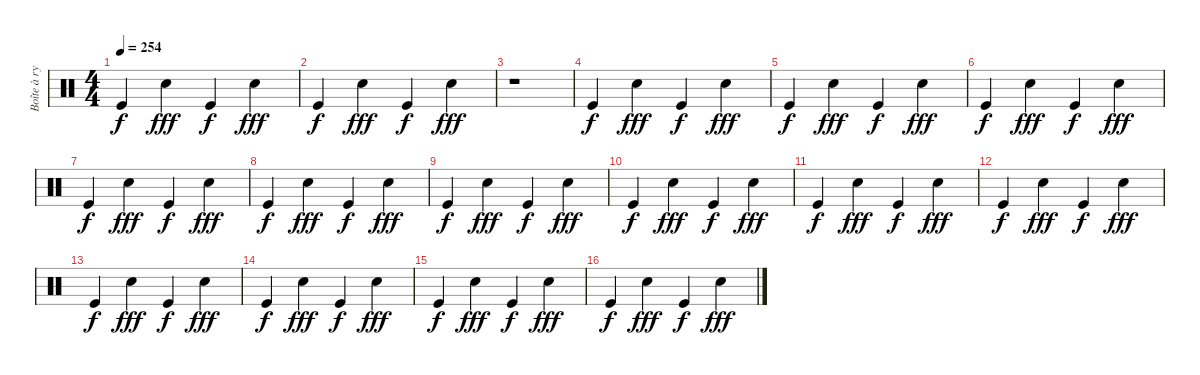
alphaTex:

\track ("Boîte à rytmes" "Boîte à ry") {instrument percussion}
\staff {score}
\articulation defaults
\ts (4 4)
\tempo 254
\clef neutral
\ks c "Kick (hit)".4{dy f} "Snare (hit) 2".4{dy fff} "Kick (hit)".4{dy f} "Snare (hit) 2".4{dy fff}
|
"Kick (hit)".4{dy f} "Snare (hit) 2".4{dy fff} "Kick (hit)".4{dy f} "Snare (hit) 2".4{dy fff} |
r.1 |
"Kick (hit)".4{dy f} "Snare (hit) 2".4{dy fff} "Kick (hit)".4{dy f} "Snare (hit) 2".4{dy fff} |
"Kick (hit)".4{dy f} "Snare (hit) 2".4{dy fff} "Kick (hit)".4{dy f} "Snare (hit) 2".4{dy fff} |
"Kick (hit)".4{dy f} "Snare (hit) 2".4{dy fff} "Kick (hit)".4{dy f} "Snare (hit) 2".4{dy fff} |
"Kick (hit)".4{dy f} "Snare (hit) 2".4{dy fff} "Kick (hit)".4{dy f} "Snare (hit) 2".4{dy fff} |
"Kick (hit)".4{dy f} "Snare (hit) 2".4{dy fff} "Kick (hit)".4{dy f} "Snare (hit) 2".4{dy fff} |
"Kick (hit)".4{dy f} "Snare (hit) 2".4{dy fff} "Kick (hit)".4{dy f} "Snare (hit) 2".4{dy fff} |
"Kick (hit)".4{dy f} "Snare (hit) 2".4{dy fff} "Kick (hit)".4{dy f} "Snare (hit) 2".4{dy fff} |
"Kick (hit)".4{dy f} "Snare (hit) 2".4{dy fff} "Kick (hit)".4{dy f} "Snare (hit) 2".4{dy fff} |
"Kick (hit)".4{dy f} "Snare (hit) 2".4{dy fff} "Kick (hit)".4{dy f} "Snare (hit) 2".4{dy fff} |
"Kick (hit)".4{dy f} "Snare (hit) 2".4{dy fff} "Kick (hit)".4{dy f} "Snare (hit) 2".4{dy fff} |
"Kick (hit)".4{dy f} "Snare (hit) 2".4{dy fff} "Kick (hit)".4{dy f} "Snare (hit) 2".4{dy fff} |
"Kick (hit)".4{dy f} "Snare (hit) 2".4{dy fff} "Kick (hit)".4{dy f} "Snare (hit) 2".4{dy fff} |
"Kick (hit)".4{dy f} "Snare (hit) 2".4{dy fff} "Kick (hit)".4{dy f} "Snare (hit) 2".4{dy fff}
